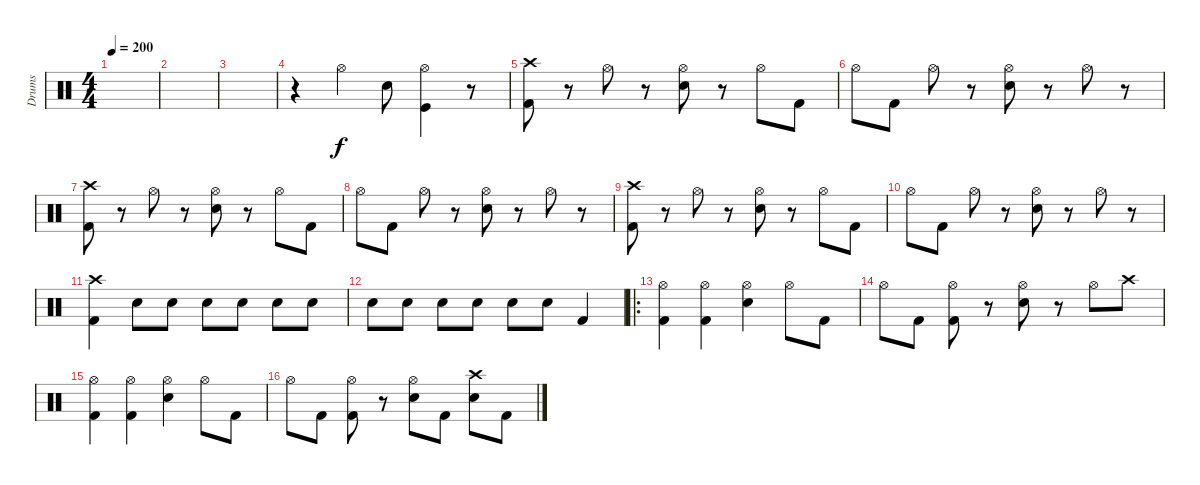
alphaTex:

\track ("Drums" "Drums") {instrument percussion}
\staff {score}
\articulation defaults
\ts (4 4)
\tempo 200
\clef neutral
\ks c
|
|
|
r.4 "Hi-Hat (open)".4 "Snare (hit) 2".8 ("Hi-Hat (open)" "Kick (hit)").4 r.8 |
("Crash high (hit)" "Kick (hit) 2").8 r.8 "Hi-Hat (open)".8 r.8 ("Hi-Hat (open)" "Snare (hit) 2").8 r.8 "Hi-Hat (open)".8 "Kick (hit) 2".8 |
"Hi-Hat (open)".8 "Kick (hit) 2".8 "Hi-Hat (open)".8 r.8 ("Hi-Hat (open)" "Snare (hit) 2").8 r.8 "Hi-Hat (open)".8 r.8 |
("Crash high (hit)" "Kick (hit) 2").8 r.8 "Hi-Hat (open)".8 r.8 ("Hi-Hat (open)" "Snare (hit) 2").8 r.8 "Hi-Hat (open)".8 "Kick (hit) 2".8 |
"Hi-Hat (open)".8 "Kick (hit) 2".8 "Hi-Hat (open)".8 r.8 ("Hi-Hat (open)" "Snare (hit) 2").8 r.8 "Hi-Hat (open)".8 r.8 |
("Crash high (hit)" "Kick (hit) 2").8 r.8 "Hi-Hat (open)".8 r.8 ("Hi-Hat (open)" "Snare (hit) 2").8 r.8 "Hi-Hat (open)".8 "Kick (hit) 2".8 |
"Hi-Hat (open)".8 "Kick (hit) 2".8 "Hi-Hat (open)".8 r.8 ("Hi-Hat (open)" "Snare (hit) 2").8 r.8 "Hi-Hat (open)".8 r.8 |
("Crash high (hit)" "Kick (hit) 2").4 "Snare (hit) 2".8{volume 8} "Snare (hit) 2".8{volume 13} "Snare (hit) 2".8 "Snare (hit) 2".8 "Snare (hit) 2".8 "Snare (hit) 2".8 |
"Snare (hit) 2".8 "Snare (hit) 2".8 "Snare (hit) 2".8 "Snare (hit) 2".8 "Snare (hit) 2".8 "Snare (hit) 2".8 "Kick (hit) 2".4 |
\ro
("Hi-Hat (open)" "Kick (hit) 2").4 ("Hi-Hat (open)" "Kick (hit) 2").4 ("Hi-Hat (open)" "Snare (hit) 2").4 "Hi-Hat (open)".8 "Kick (hit) 2".8 |
"Hi-Hat (open)".8 "Kick (hit) 2".8 ("Hi-Hat (open)" "Kick (hit) 2").8 r.8 ("Hi-Hat (open)" "Snare (hit) 2").8 r.8 "Hi-Hat (open)".8 "Crash high (hit)".8 |
("Hi-Hat (open)" "Kick (hit) 2").4 ("Hi-Hat (open)" "Kick (hit) 2").4 ("Hi-Hat (open)" "Snare (hit) 2").4 "Hi-Hat (open)".8 "Kick (hit) 2".8 |
"Hi-Hat (open)".8 "Kick (hit) 2".8 ("Hi-Hat (open)" "Kick (hit) 2").8 r.8 ("Hi-Hat (open)" "Snare (hit) 2").8 "Kick (hit) 2".8 ("Crash high (hit)" "Snare (hit) 2").8 "Kick (hit) 2".8
